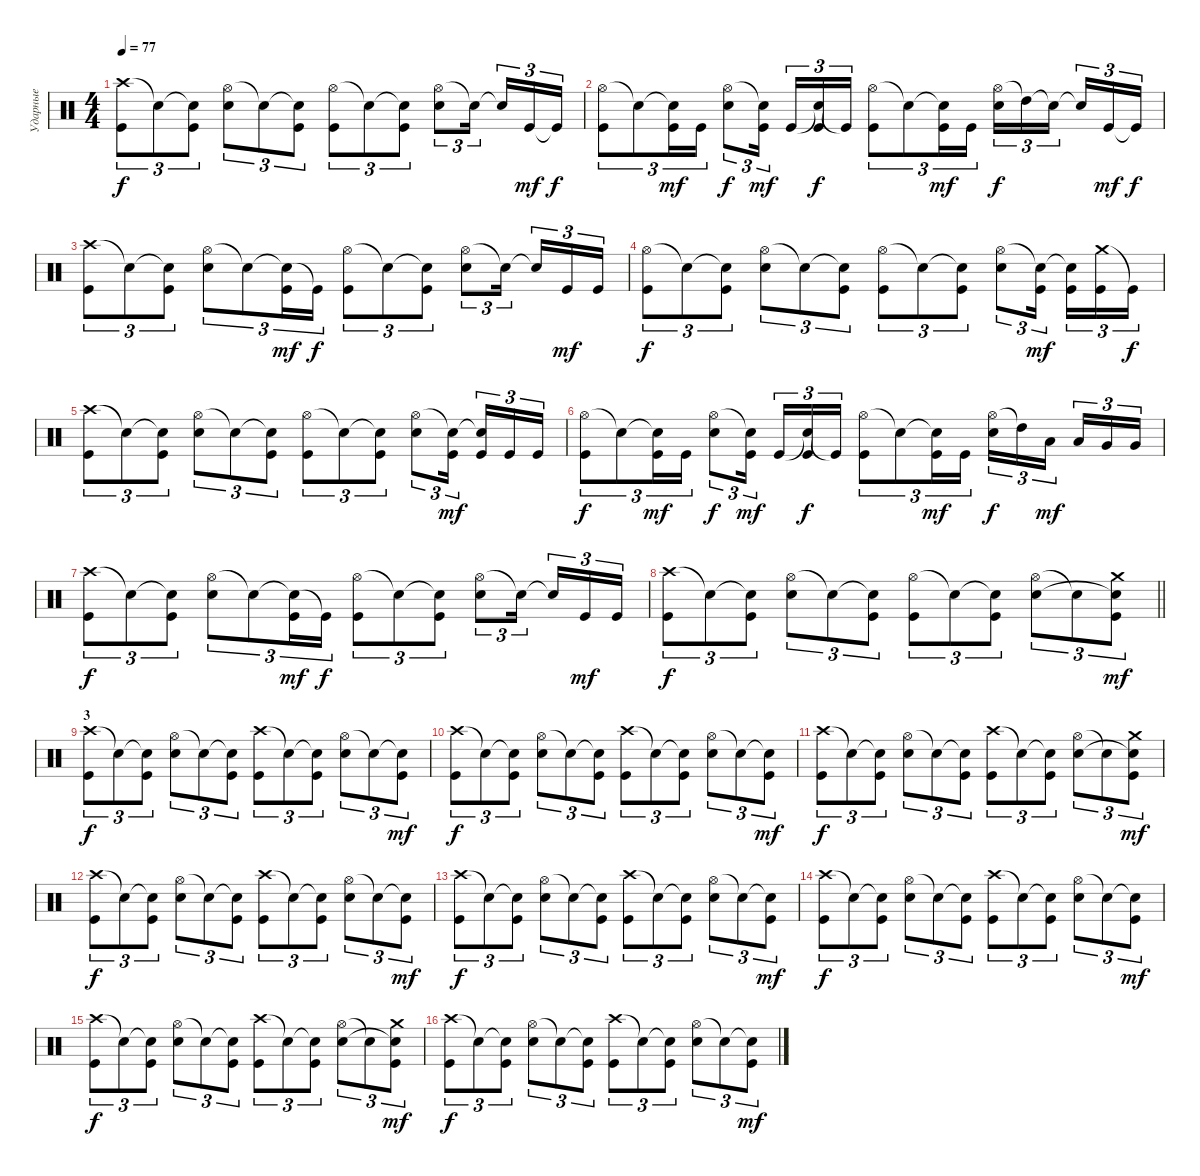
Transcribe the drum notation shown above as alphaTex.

\track ("Ударные" "Ударные") {instrument percussion}
\staff {score}
\articulation defaults
\ts (4 4)
\tempo 77
\clef neutral
\ks c
("Crash high (hit)" "Kick (hit)").8{tu (3 2) dy f} "Snare (hit)"{t}.8{tu (3 2)} ("Snare (hit)"{t} "Kick (hit)").8{tu (3 2)} ("Hi-Hat (open)" "Snare (hit) 2").8{tu (3 2)} "Snare (hit)"{t}.8{tu (3 2)} ("Snare (hit)"{t} "Kick (hit)").8{tu (3 2)} ("Hi-Hat (open)" "Kick (hit)").8{tu (3 2)} "Snare (hit)"{t}.8{tu (3 2)} ("Snare (hit)"{t} "Kick (hit)").8{tu (3 2)} ("Hi-Hat (open)" "Snare (hit) 2").8{tu (3 2)} "Snare (hit)"{t}.16{tu (3 2) beam splitsecondary} "Snare (hit)"{t}.16{tu (3 2)} "Kick (hit)".16{tu (3 2) dy mf} "Kick (hit)"{t}.16{tu (3 2) dy f} |
("Hi-Hat (open)" "Kick (hit)").8{tu (3 2)} "Snare (hit)"{t}.8{tu (3 2)} ("Snare (hit)"{t} "Kick (hit)").16{tu (3 2) dy mf} "Kick (hit)".16{tu (3 2)} ("Hi-Hat (open)" "Snare (hit) 2").8{tu (3 2) dy f} ("Snare (hit)"{t} "Kick (hit)").16{tu (3 2) dy mf beam splitsecondary} "Kick (hit)".16{tu (3 2)} ("Snare (hit)"{t} "Kick (hit)").16{tu (3 2) dy f} "Kick (hit)"{t}.16{tu (3 2)} ("Hi-Hat (open)" "Kick (hit)").8{tu (3 2)} "Snare (hit)"{t}.8{tu (3 2)} ("Snare (hit)"{t} "Kick (hit)").16{tu (3 2) dy mf} "Kick (hit)".16{tu (3 2)} ("Hi-Hat (open)" "Snare (hit) 2").16{tu (3 2) dy f} "High Tom (hit)"{t}.16{tu (3 2)} "Snare (hit)"{t}.16{tu (3 2) beam splitsecondary} "Snare (hit)"{t}.16{tu (3 2)} "Kick (hit)".16{tu (3 2) dy mf} "Kick (hit)"{t}.16{tu (3 2) dy f} |
("Crash high (hit)" "Kick (hit)").8{tu (3 2)} "Snare (hit)"{t}.8{tu (3 2)} ("Snare (hit)"{t} "Kick (hit)").8{tu (3 2)} ("Hi-Hat (open)" "Snare (hit) 2").8{tu (3 2)} "Snare (hit)"{t}.8{tu (3 2)} ("Snare (hit)"{t} "Kick (hit)").16{tu (3 2) dy mf} "Kick (hit)"{t}.16{tu (3 2) dy f} ("Hi-Hat (open)" "Kick (hit)").8{tu (3 2)} "Snare (hit)"{t}.8{tu (3 2)} ("Snare (hit)"{t} "Kick (hit)").8{tu (3 2)} ("Hi-Hat (open)" "Snare (hit) 2").8{tu (3 2)} "Snare (hit)"{t}.16{tu (3 2) beam splitsecondary} "Snare (hit)"{t}.16{tu (3 2)} "Kick (hit)".16{tu (3 2) dy mf} "Kick (hit)".16{tu (3 2)} |
("Hi-Hat (open)" "Kick (hit)").8{tu (3 2) dy f} "Snare (hit)"{t}.8{tu (3 2)} ("Snare (hit)"{t} "Kick (hit)").8{tu (3 2)} ("Hi-Hat (open)" "Snare (hit) 2").8{tu (3 2)} "Snare (hit)"{t}.8{tu (3 2)} ("Snare (hit)"{t} "Kick (hit)").8{tu (3 2)} ("Hi-Hat (open)" "Kick (hit)").8{tu (3 2)} "Snare (hit)"{t}.8{tu (3 2)} ("Snare (hit)"{t} "Kick (hit)").8{tu (3 2)} ("Hi-Hat (open)" "Snare (hit) 2").8{tu (3 2)} ("Snare (hit)"{t} "Kick (hit)").16{tu (3 2) dy mf beam splitsecondary} ("Snare (hit)"{t} "Kick (hit)").16{tu (3 2)} ("Crash medium (hit)" "Kick (hit)").16{tu (3 2)} "Kick (hit)"{t}.16{tu (3 2) dy f} |
("Crash high (hit)" "Kick (hit)").8{tu (3 2)} "Snare (hit)"{t}.8{tu (3 2)} ("Snare (hit)"{t} "Kick (hit)").8{tu (3 2)} ("Hi-Hat (open)" "Snare (hit) 2").8{tu (3 2)} "Snare (hit)"{t}.8{tu (3 2)} ("Snare (hit)"{t} "Kick (hit)").8{tu (3 2)} ("Hi-Hat (open)" "Kick (hit)").8{tu (3 2)} "Snare (hit)"{t}.8{tu (3 2)} ("Snare (hit)"{t} "Kick (hit)").8{tu (3 2)} ("Hi-Hat (open)" "Snare (hit) 2").8{tu (3 2)} ("Snare (hit)"{t} "Kick (hit)").16{tu (3 2) dy mf beam splitsecondary} ("Snare (hit)"{t} "Kick (hit)").16{tu (3 2)} "Kick (hit)".16{tu (3 2)} "Kick (hit)".16{tu (3 2)} |
("Hi-Hat (open)" "Kick (hit)").8{tu (3 2) dy f} "Snare (hit)"{t}.8{tu (3 2)} ("Snare (hit)"{t} "Kick (hit)").16{tu (3 2) dy mf} "Kick (hit)".16{tu (3 2)} ("Hi-Hat (open)" "Snare (hit) 2").8{tu (3 2) dy f} ("Snare (hit)"{t} "Kick (hit)").16{tu (3 2) dy mf beam splitsecondary} "Kick (hit)".16{tu (3 2)} ("Snare (hit)"{t} "Kick (hit)").16{tu (3 2) dy f} "Kick (hit)"{t}.16{tu (3 2)} ("Hi-Hat (open)" "Kick (hit)").8{tu (3 2)} "Snare (hit)"{t}.8{tu (3 2)} ("Snare (hit)"{t} "Kick (hit)").16{tu (3 2) dy mf} "Kick (hit)".16{tu (3 2)} ("Hi-Hat (open)" "Snare (hit) 2").16{tu (3 2) dy f} "High Tom (hit)"{t}.16{tu (3 2)} "Low Tom (hit)".16{tu (3 2) dy mf beam splitsecondary} "Low Tom (hit)".16{tu (3 2)} "Very Low Tom (hit)".16{tu (3 2)} "Very Low Tom (hit)".16{tu (3 2)} |
("Crash high (hit)" "Kick (hit)").8{tu (3 2) dy f} "Snare (hit)"{t}.8{tu (3 2)} ("Snare (hit)"{t} "Kick (hit)").8{tu (3 2)} ("Hi-Hat (open)" "Snare (hit) 2").8{tu (3 2)} "Snare (hit)"{t}.8{tu (3 2)} ("Snare (hit)"{t} "Kick (hit)").16{tu (3 2) dy mf} "Kick (hit)"{t}.16{tu (3 2) dy f} ("Hi-Hat (open)" "Kick (hit)").8{tu (3 2)} "Snare (hit)"{t}.8{tu (3 2)} ("Snare (hit)"{t} "Kick (hit)").8{tu (3 2)} ("Hi-Hat (open)" "Snare (hit) 2").8{tu (3 2)} "Snare (hit)"{t}.16{tu (3 2) beam splitsecondary} "Snare (hit)"{t}.16{tu (3 2)} "Kick (hit)".16{tu (3 2) dy mf} "Kick (hit)".16{tu (3 2)} |
\barLineRight lightlight
("Crash high (hit)" "Kick (hit)").8{tu (3 2) dy f} "Snare (hit)"{t}.8{tu (3 2)} ("Snare (hit)"{t} "Kick (hit)").8{tu (3 2)} ("Hi-Hat (open)" "Snare (hit) 2").8{tu (3 2)} "Snare (hit)"{t}.8{tu (3 2)} ("Snare (hit)"{t} "Kick (hit)").8{tu (3 2)} ("Hi-Hat (open)" "Kick (hit)").8{tu (3 2)} "Snare (hit)"{t}.8{tu (3 2)} ("Snare (hit)"{t} "Kick (hit)").8{tu (3 2)} ("Hi-Hat (open)" "Snare (hit) 2").8{tu (3 2)} "Snare (hit)"{t}.8{tu (3 2)} ("Crash medium (hit)" "Snare (hit)"{t} "Kick (hit)").8{tu (3 2) dy mf} |
\section ("" "3")
("Crash high (hit)" "Kick (hit)").8{tu (3 2) dy f} "Snare (hit)"{t}.8{tu (3 2)} ("Snare (hit)"{t} "Kick (hit)").8{tu (3 2)} ("Hi-Hat (open)" "Snare (hit) 2").8{tu (3 2)} "Snare (hit)"{t}.8{tu (3 2)} ("Snare (hit)"{t} "Kick (hit)").8{tu (3 2)} ("Crash high (hit)" "Kick (hit)").8{tu (3 2)} "Snare (hit)"{t}.8{tu (3 2)} ("Snare (hit)"{t} "Kick (hit)").8{tu (3 2)} ("Hi-Hat (open)" "Snare (hit) 2").8{tu (3 2)} "Snare (hit)"{t}.8{tu (3 2)} ("Snare (hit)"{t} "Kick (hit)").8{tu (3 2) dy mf} |
("Crash high (hit)" "Kick (hit)").8{tu (3 2) dy f} "Snare (hit)"{t}.8{tu (3 2)} ("Snare (hit)"{t} "Kick (hit)").8{tu (3 2)} ("Hi-Hat (open)" "Snare (hit) 2").8{tu (3 2)} "Snare (hit)"{t}.8{tu (3 2)} ("Snare (hit)"{t} "Kick (hit)").8{tu (3 2)} ("Crash high (hit)" "Kick (hit)").8{tu (3 2)} "Snare (hit)"{t}.8{tu (3 2)} ("Snare (hit)"{t} "Kick (hit)").8{tu (3 2)} ("Hi-Hat (open)" "Snare (hit) 2").8{tu (3 2)} "Snare (hit)"{t}.8{tu (3 2)} ("Snare (hit)"{t} "Kick (hit)").8{tu (3 2) dy mf} |
("Crash high (hit)" "Kick (hit)").8{tu (3 2) dy f} "Snare (hit)"{t}.8{tu (3 2)} ("Snare (hit)"{t} "Kick (hit)").8{tu (3 2)} ("Hi-Hat (open)" "Snare (hit) 2").8{tu (3 2)} "Snare (hit)"{t}.8{tu (3 2)} ("Snare (hit)"{t} "Kick (hit)").8{tu (3 2)} ("Crash high (hit)" "Kick (hit)").8{tu (3 2)} "Snare (hit)"{t}.8{tu (3 2)} ("Snare (hit)"{t} "Kick (hit)").8{tu (3 2)} ("Hi-Hat (open)" "Snare (hit) 2").8{tu (3 2)} "Snare (hit)"{t}.8{tu (3 2)} ("Crash medium (hit)" "Snare (hit)"{t} "Kick (hit)").8{tu (3 2) dy mf} |
("Crash high (hit)" "Kick (hit)").8{tu (3 2) dy f} "Snare (hit)"{t}.8{tu (3 2)} ("Snare (hit)"{t} "Kick (hit)").8{tu (3 2)} ("Hi-Hat (open)" "Snare (hit) 2").8{tu (3 2)} "Snare (hit)"{t}.8{tu (3 2)} ("Snare (hit)"{t} "Kick (hit)").8{tu (3 2)} ("Crash high (hit)" "Kick (hit)").8{tu (3 2)} "Snare (hit)"{t}.8{tu (3 2)} ("Snare (hit)"{t} "Kick (hit)").8{tu (3 2)} ("Hi-Hat (open)" "Snare (hit) 2").8{tu (3 2)} "Snare (hit)"{t}.8{tu (3 2)} ("Snare (hit)"{t} "Kick (hit)").8{tu (3 2) dy mf} |
("Crash high (hit)" "Kick (hit)").8{tu (3 2) dy f} "Snare (hit)"{t}.8{tu (3 2)} ("Snare (hit)"{t} "Kick (hit)").8{tu (3 2)} ("Hi-Hat (open)" "Snare (hit) 2").8{tu (3 2)} "Snare (hit)"{t}.8{tu (3 2)} ("Snare (hit)"{t} "Kick (hit)").8{tu (3 2)} ("Crash high (hit)" "Kick (hit)").8{tu (3 2)} "Snare (hit)"{t}.8{tu (3 2)} ("Snare (hit)"{t} "Kick (hit)").8{tu (3 2)} ("Hi-Hat (open)" "Snare (hit) 2").8{tu (3 2)} "Snare (hit)"{t}.8{tu (3 2)} ("Snare (hit)"{t} "Kick (hit)").8{tu (3 2) dy mf} |
("Crash high (hit)" "Kick (hit)").8{tu (3 2) dy f} "Snare (hit)"{t}.8{tu (3 2)} ("Snare (hit)"{t} "Kick (hit)").8{tu (3 2)} ("Hi-Hat (open)" "Snare (hit) 2").8{tu (3 2)} "Snare (hit)"{t}.8{tu (3 2)} ("Snare (hit)"{t} "Kick (hit)").8{tu (3 2)} ("Crash high (hit)" "Kick (hit)").8{tu (3 2)} "Snare (hit)"{t}.8{tu (3 2)} ("Snare (hit)"{t} "Kick (hit)").8{tu (3 2)} ("Hi-Hat (open)" "Snare (hit) 2").8{tu (3 2)} "Snare (hit)"{t}.8{tu (3 2)} ("Snare (hit)"{t} "Kick (hit)").8{tu (3 2) dy mf} |
("Crash high (hit)" "Kick (hit)").8{tu (3 2) dy f} "Snare (hit)"{t}.8{tu (3 2)} ("Snare (hit)"{t} "Kick (hit)").8{tu (3 2)} ("Hi-Hat (open)" "Snare (hit) 2").8{tu (3 2)} "Snare (hit)"{t}.8{tu (3 2)} ("Snare (hit)"{t} "Kick (hit)").8{tu (3 2)} ("Crash high (hit)" "Kick (hit)").8{tu (3 2)} "Snare (hit)"{t}.8{tu (3 2)} ("Snare (hit)"{t} "Kick (hit)").8{tu (3 2)} ("Hi-Hat (open)" "Snare (hit) 2").8{tu (3 2)} "Snare (hit)"{t}.8{tu (3 2)} ("Crash medium (hit)" "Snare (hit)"{t} "Kick (hit)").8{tu (3 2) dy mf} |
("Crash high (hit)" "Kick (hit)").8{tu (3 2) dy f} "Snare (hit)"{t}.8{tu (3 2)} ("Snare (hit)"{t} "Kick (hit)").8{tu (3 2)} ("Hi-Hat (open)" "Snare (hit) 2").8{tu (3 2)} "Snare (hit)"{t}.8{tu (3 2)} ("Snare (hit)"{t} "Kick (hit)").8{tu (3 2)} ("Crash high (hit)" "Kick (hit)").8{tu (3 2)} "Snare (hit)"{t}.8{tu (3 2)} ("Snare (hit)"{t} "Kick (hit)").8{tu (3 2)} ("Hi-Hat (open)" "Snare (hit) 2").8{tu (3 2)} "Snare (hit)"{t}.8{tu (3 2)} ("Snare (hit)"{t} "Kick (hit)").8{tu (3 2) dy mf}
